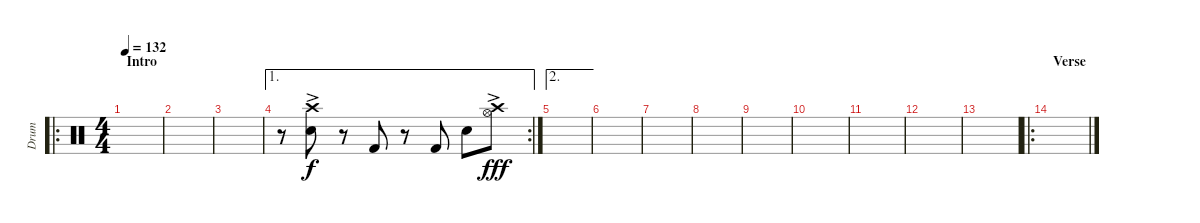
\track ("Drum" "Drum") {instrument percussion}
\staff {score}
\articulation defaults
\ro
\ts (4 4)
\section ("" "Intro")
\tempo 132
\clef neutral
\ks c
|
|
|
\ae 1
\rc 2
r.8 ("Snare (hit) 2"{ac} "Crash high (hit)"{ac}).8 r.8 "Kick (hit) 2".8{dy f} r.8 "Kick (hit) 2".8 "Snare (hit) 2".8 ("Crash high (hit)"{ac} "Hi-Hat (open)"{ac}).8{dy fff} |
\ae 2
|
|
|
|
|
|
|
|
|
\ro
\section ("" "Verse")
